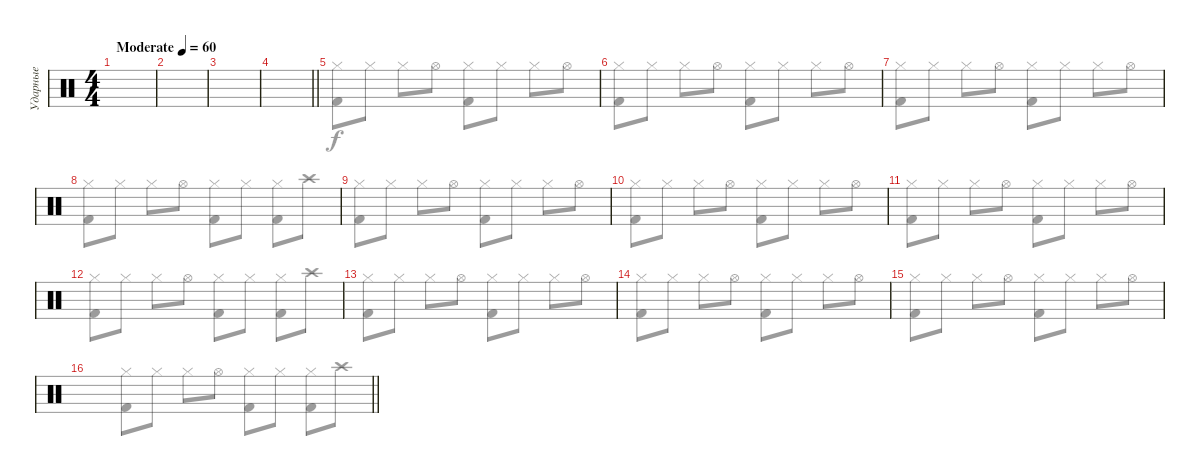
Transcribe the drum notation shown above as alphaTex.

\track ("Ударные" "Ударные") {instrument percussion}
\staff {score}
\articulation defaults
\voice
\ts (4 4)
\tempo (60 "Moderate")
\clef neutral
\ks c
|
|
|
\barLineRight lightlight
|
|
|
|
|
|
|
|
|
|
|
|
\barLineRight lightlight
\voice
\clef neutral
\ks c
|
|
|
\barLineRight lightlight
|
("Hi-Hat (closed)" "Kick (hit) 2").8 "Hi-Hat (closed)".8 "Hi-Hat (closed)".8 "Hi-Hat (open)".8 ("Hi-Hat (closed)" "Kick (hit) 2").8 "Hi-Hat (closed)".8 "Hi-Hat (closed)".8 "Hi-Hat (open)".8 |
("Hi-Hat (closed)" "Kick (hit) 2").8 "Hi-Hat (closed)".8 "Hi-Hat (closed)".8 "Hi-Hat (open)".8 ("Hi-Hat (closed)" "Kick (hit) 2").8 "Hi-Hat (closed)".8 "Hi-Hat (closed)".8 "Hi-Hat (open)".8 |
("Hi-Hat (closed)" "Kick (hit) 2").8 "Hi-Hat (closed)".8 "Hi-Hat (closed)".8 "Hi-Hat (open)".8 ("Hi-Hat (closed)" "Kick (hit) 2").8 "Hi-Hat (closed)".8 "Hi-Hat (closed)".8 "Hi-Hat (open)".8 |
("Hi-Hat (closed)" "Kick (hit) 2").8 "Hi-Hat (closed)".8 "Hi-Hat (closed)".8 "Hi-Hat (open)".8 ("Hi-Hat (closed)" "Kick (hit) 2").8 "Hi-Hat (closed)".8 ("Hi-Hat (closed)" "Kick (hit) 2").8 "Crash high (hit)".8 |
("Hi-Hat (closed)" "Kick (hit) 2").8 "Hi-Hat (closed)".8 "Hi-Hat (closed)".8 "Hi-Hat (open)".8 ("Hi-Hat (closed)" "Kick (hit) 2").8 "Hi-Hat (closed)".8 "Hi-Hat (closed)".8 "Hi-Hat (open)".8 |
("Hi-Hat (closed)" "Kick (hit) 2").8 "Hi-Hat (closed)".8 "Hi-Hat (closed)".8 "Hi-Hat (open)".8 ("Hi-Hat (closed)" "Kick (hit) 2").8 "Hi-Hat (closed)".8 "Hi-Hat (closed)".8 "Hi-Hat (open)".8 |
("Hi-Hat (closed)" "Kick (hit) 2").8 "Hi-Hat (closed)".8 "Hi-Hat (closed)".8 "Hi-Hat (open)".8 ("Hi-Hat (closed)" "Kick (hit) 2").8 "Hi-Hat (closed)".8 "Hi-Hat (closed)".8 "Hi-Hat (open)".8 |
("Hi-Hat (closed)" "Kick (hit) 2").8 "Hi-Hat (closed)".8 "Hi-Hat (closed)".8 "Hi-Hat (open)".8 ("Hi-Hat (closed)" "Kick (hit) 2").8 "Hi-Hat (closed)".8 ("Hi-Hat (closed)" "Kick (hit) 2").8 "Crash high (hit)".8 |
("Hi-Hat (closed)" "Kick (hit) 2").8 "Hi-Hat (closed)".8 "Hi-Hat (closed)".8 "Hi-Hat (open)".8 ("Hi-Hat (closed)" "Kick (hit) 2").8 "Hi-Hat (closed)".8 "Hi-Hat (closed)".8 "Hi-Hat (open)".8 |
("Hi-Hat (closed)" "Kick (hit) 2").8 "Hi-Hat (closed)".8 "Hi-Hat (closed)".8 "Hi-Hat (open)".8 ("Hi-Hat (closed)" "Kick (hit) 2").8 "Hi-Hat (closed)".8 "Hi-Hat (closed)".8 "Hi-Hat (open)".8 |
("Hi-Hat (closed)" "Kick (hit) 2").8 "Hi-Hat (closed)".8 "Hi-Hat (closed)".8 "Hi-Hat (open)".8 ("Hi-Hat (closed)" "Kick (hit) 2").8 "Hi-Hat (closed)".8 "Hi-Hat (closed)".8 "Hi-Hat (open)".8 |
\barLineRight lightlight
("Hi-Hat (closed)" "Kick (hit) 2").8 "Hi-Hat (closed)".8 "Hi-Hat (closed)".8 "Hi-Hat (open)".8 ("Hi-Hat (closed)" "Kick (hit) 2").8 "Hi-Hat (closed)".8 ("Hi-Hat (closed)" "Kick (hit) 2").8 "Crash high (hit)".8
